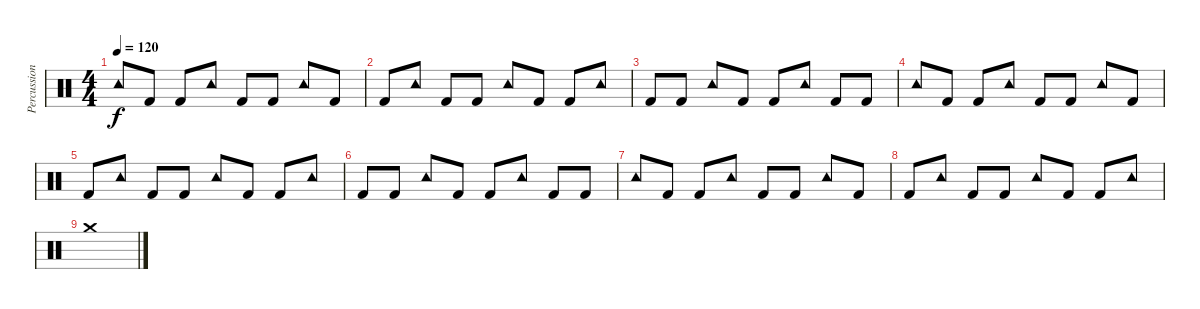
\track ("Percussion" "Percussion") {instrument percussion}
\staff {score}
\articulation defaults
\ts (4 4)
\tempo 120
\clef neutral
\ks c "Tambourine (hit)".8{dy f} "Kick (hit) 2".8 "Kick (hit) 2".8 "Tambourine (hit)".8 "Kick (hit) 2".8 "Kick (hit) 2".8 "Tambourine (hit)".8 "Kick (hit) 2".8
|
"Kick (hit) 2".8 "Tambourine (hit)".8 "Kick (hit) 2".8 "Kick (hit) 2".8 "Tambourine (hit)".8 "Kick (hit) 2".8 "Kick (hit) 2".8 "Tambourine (hit)".8 |
"Kick (hit) 2".8 "Kick (hit) 2".8 "Tambourine (hit)".8 "Kick (hit) 2".8 "Kick (hit) 2".8 "Tambourine (hit)".8 "Kick (hit) 2".8 "Kick (hit) 2".8 |
"Tambourine (hit)".8 "Kick (hit) 2".8 "Kick (hit) 2".8 "Tambourine (hit)".8 "Kick (hit) 2".8 "Kick (hit) 2".8 "Tambourine (hit)".8 "Kick (hit) 2".8 |
"Kick (hit) 2".8 "Tambourine (hit)".8 "Kick (hit) 2".8 "Kick (hit) 2".8 "Tambourine (hit)".8 "Kick (hit) 2".8 "Kick (hit) 2".8 "Tambourine (hit)".8 |
"Kick (hit) 2".8 "Kick (hit) 2".8 "Tambourine (hit)".8 "Kick (hit) 2".8 "Kick (hit) 2".8 "Tambourine (hit)".8 "Kick (hit) 2".8 "Kick (hit) 2".8 |
"Tambourine (hit)".8 "Kick (hit) 2".8 "Kick (hit) 2".8 "Tambourine (hit)".8 "Kick (hit) 2".8 "Kick (hit) 2".8 "Tambourine (hit)".8 "Kick (hit) 2".8 |
"Kick (hit) 2".8 "Tambourine (hit)".8 "Kick (hit) 2".8 "Kick (hit) 2".8 "Tambourine (hit)".8 "Kick (hit) 2".8 "Kick (hit) 2".8 "Tambourine (hit)".8 |
"Crash medium (hit)".1
